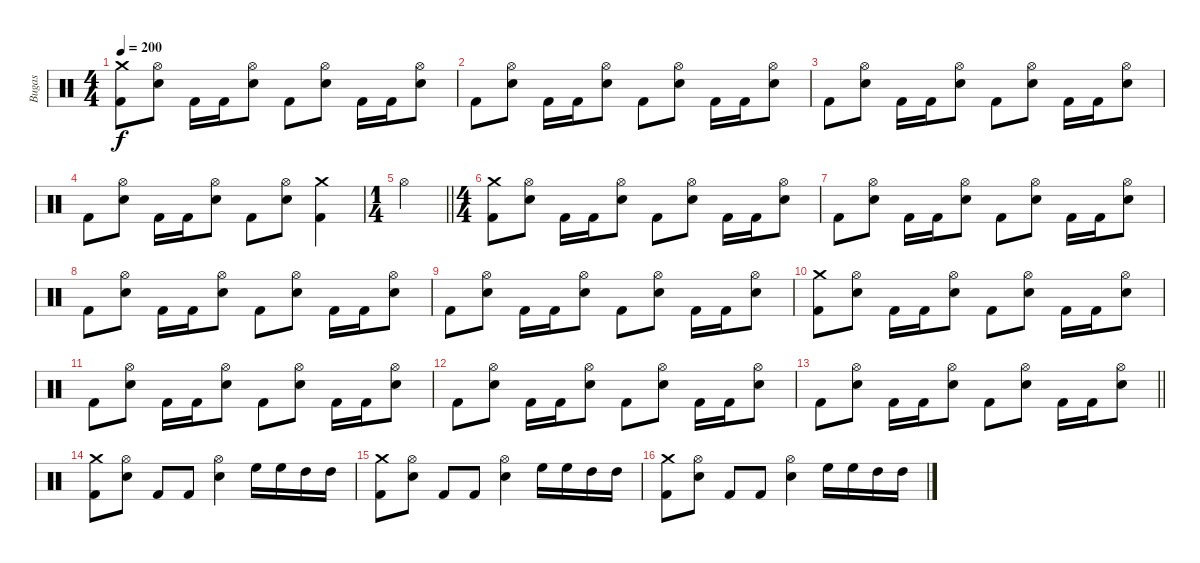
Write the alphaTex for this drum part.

\track ("Bugas" "Bugas") {instrument percussion}
\staff {score}
\articulation defaults
\ts (4 4)
\tempo 200
\clef neutral
\ks c
("Crash medium (hit)" "Kick (hit) 2").8{dy f} ("Hi-Hat (open)" "Electric Snare (hit)").8 "Kick (hit) 2".16 "Kick (hit) 2".16 ("Hi-Hat (open)" "Electric Snare (hit)").8 "Kick (hit) 2".8 ("Hi-Hat (open)" "Electric Snare (hit)").8 "Kick (hit) 2".16 "Kick (hit) 2".16 ("Hi-Hat (open)" "Electric Snare (hit)").8 |
"Kick (hit) 2".8 ("Hi-Hat (open)" "Electric Snare (hit)").8 "Kick (hit) 2".16 "Kick (hit) 2".16 ("Hi-Hat (open)" "Electric Snare (hit)").8 "Kick (hit) 2".8 ("Hi-Hat (open)" "Electric Snare (hit)").8 "Kick (hit) 2".16 "Kick (hit) 2".16 ("Hi-Hat (open)" "Electric Snare (hit)").8 |
"Kick (hit) 2".8 ("Hi-Hat (open)" "Electric Snare (hit)").8 "Kick (hit) 2".16 "Kick (hit) 2".16 ("Hi-Hat (open)" "Electric Snare (hit)").8 "Kick (hit) 2".8 ("Hi-Hat (open)" "Electric Snare (hit)").8 "Kick (hit) 2".16 "Kick (hit) 2".16 ("Hi-Hat (open)" "Electric Snare (hit)").8 |
"Kick (hit) 2".8 ("Hi-Hat (open)" "Electric Snare (hit)").8 "Kick (hit) 2".16 "Kick (hit) 2".16 ("Hi-Hat (open)" "Electric Snare (hit)").8 "Kick (hit) 2".8 ("Hi-Hat (open)" "Electric Snare (hit)").8 ("Crash medium (hit)" "Kick (hit) 2").4 |
\ts (1 4)
\barLineRight lightlight "Hi-Hat (open)".4
|
\ts (4 4)
("Crash medium (hit)" "Kick (hit) 2").8 ("Hi-Hat (open)" "Electric Snare (hit)").8 "Kick (hit) 2".16 "Kick (hit) 2".16 ("Hi-Hat (open)" "Electric Snare (hit)").8 "Kick (hit) 2".8 ("Hi-Hat (open)" "Electric Snare (hit)").8 "Kick (hit) 2".16 "Kick (hit) 2".16 ("Hi-Hat (open)" "Electric Snare (hit)").8 |
"Kick (hit) 2".8 ("Hi-Hat (open)" "Electric Snare (hit)").8 "Kick (hit) 2".16 "Kick (hit) 2".16 ("Hi-Hat (open)" "Electric Snare (hit)").8 "Kick (hit) 2".8 ("Hi-Hat (open)" "Electric Snare (hit)").8 "Kick (hit) 2".16 "Kick (hit) 2".16 ("Hi-Hat (open)" "Electric Snare (hit)").8 |
"Kick (hit) 2".8 ("Hi-Hat (open)" "Electric Snare (hit)").8 "Kick (hit) 2".16 "Kick (hit) 2".16 ("Hi-Hat (open)" "Electric Snare (hit)").8 "Kick (hit) 2".8 ("Hi-Hat (open)" "Electric Snare (hit)").8 "Kick (hit) 2".16 "Kick (hit) 2".16 ("Hi-Hat (open)" "Electric Snare (hit)").8 |
"Kick (hit) 2".8 ("Hi-Hat (open)" "Electric Snare (hit)").8 "Kick (hit) 2".16 "Kick (hit) 2".16 ("Hi-Hat (open)" "Electric Snare (hit)").8 "Kick (hit) 2".8 ("Hi-Hat (open)" "Electric Snare (hit)").8 "Kick (hit) 2".16 "Kick (hit) 2".16 ("Hi-Hat (open)" "Electric Snare (hit)").8 |
("Crash medium (hit)" "Kick (hit) 2").8 ("Hi-Hat (open)" "Electric Snare (hit)").8 "Kick (hit) 2".16 "Kick (hit) 2".16 ("Hi-Hat (open)" "Electric Snare (hit)").8 "Kick (hit) 2".8 ("Hi-Hat (open)" "Electric Snare (hit)").8 "Kick (hit) 2".16 "Kick (hit) 2".16 ("Hi-Hat (open)" "Electric Snare (hit)").8 |
"Kick (hit) 2".8 ("Hi-Hat (open)" "Electric Snare (hit)").8 "Kick (hit) 2".16 "Kick (hit) 2".16 ("Hi-Hat (open)" "Electric Snare (hit)").8 "Kick (hit) 2".8 ("Hi-Hat (open)" "Electric Snare (hit)").8 "Kick (hit) 2".16 "Kick (hit) 2".16 ("Hi-Hat (open)" "Electric Snare (hit)").8 |
"Kick (hit) 2".8 ("Hi-Hat (open)" "Electric Snare (hit)").8 "Kick (hit) 2".16 "Kick (hit) 2".16 ("Hi-Hat (open)" "Electric Snare (hit)").8 "Kick (hit) 2".8 ("Hi-Hat (open)" "Electric Snare (hit)").8 "Kick (hit) 2".16 "Kick (hit) 2".16 ("Hi-Hat (open)" "Electric Snare (hit)").8 |
\barLineRight lightlight "Kick (hit) 2".8
("Hi-Hat (open)" "Electric Snare (hit)").8 "Kick (hit) 2".16 "Kick (hit) 2".16 ("Hi-Hat (open)" "Electric Snare (hit)").8 "Kick (hit) 2".8 ("Hi-Hat (open)" "Electric Snare (hit)").8 "Kick (hit) 2".16 "Kick (hit) 2".16 ("Hi-Hat (open)" "Electric Snare (hit)").8 |
("Crash medium (hit)" "Kick (hit) 2").8 ("Hi-Hat (open)" "Electric Snare (hit)").8 "Kick (hit) 2".8 "Kick (hit) 2".8 ("Hi-Hat (open)" "Electric Snare (hit)").4 "High Floor Tom (hit)".16 "High Floor Tom (hit)".16 "High Tom (hit)".16 "High Tom (hit)".16 |
("Crash medium (hit)" "Kick (hit) 2").8 ("Hi-Hat (open)" "Electric Snare (hit)").8 "Kick (hit) 2".8 "Kick (hit) 2".8 ("Hi-Hat (open)" "Electric Snare (hit)").4 "High Floor Tom (hit)".16 "High Floor Tom (hit)".16 "High Tom (hit)".16 "High Tom (hit)".16 |
("Crash medium (hit)" "Kick (hit) 2").8 ("Hi-Hat (open)" "Electric Snare (hit)").8 "Kick (hit) 2".8 "Kick (hit) 2".8 ("Hi-Hat (open)" "Electric Snare (hit)").4 "High Floor Tom (hit)".16 "High Floor Tom (hit)".16 "High Tom (hit)".16 "High Tom (hit)".16
